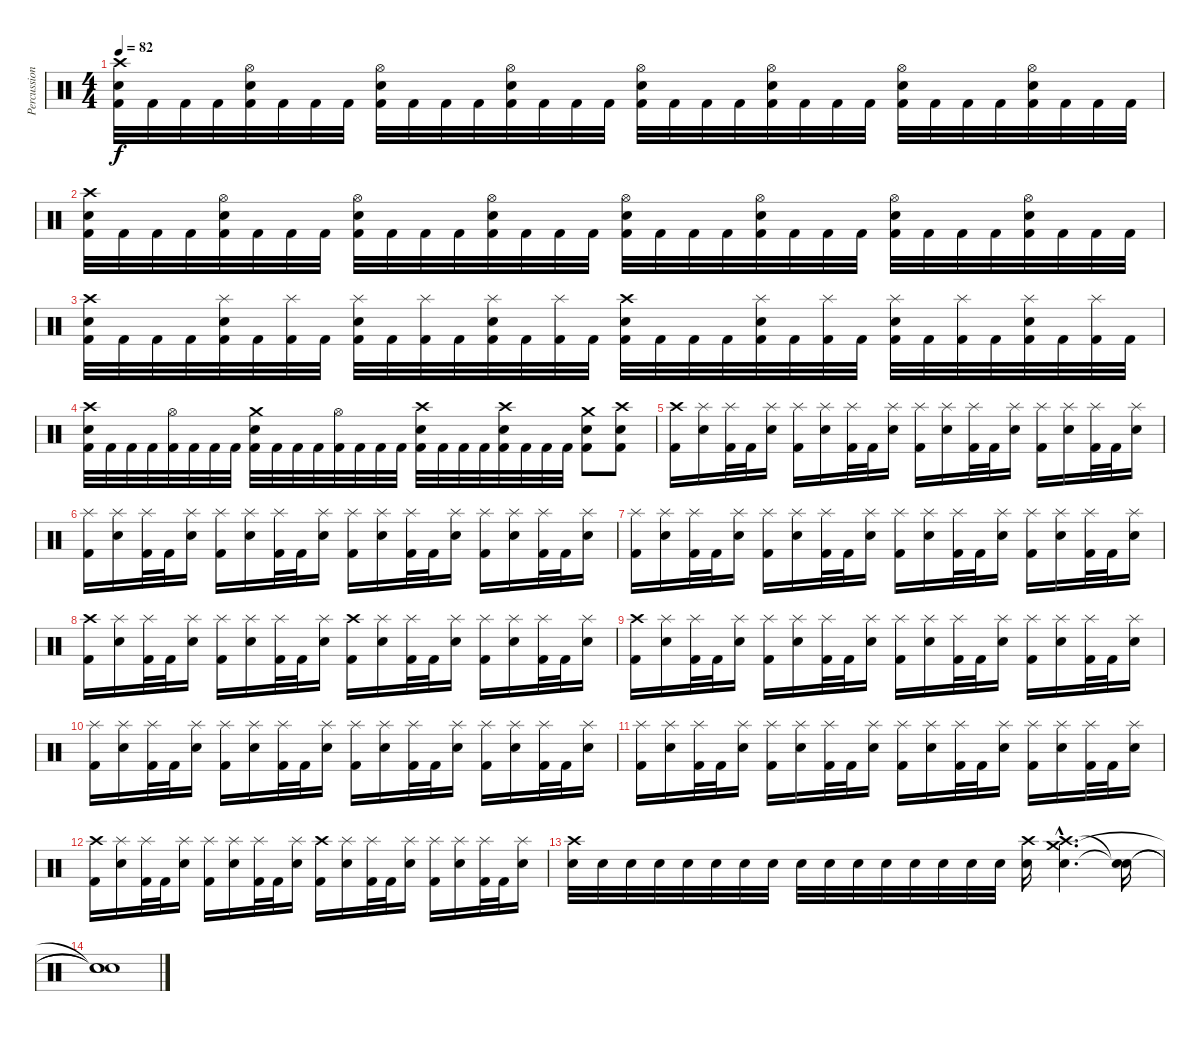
\track ("Percussion" "Percussion") {instrument percussion}
\staff {score}
\articulation defaults
\ts (4 4)
\tempo 82
\clef neutral
\ks c
("Crash high (hit)" "Electric Snare (hit)" "Kick (hit) 2").32{dy f} "Kick (hit) 2".32 "Kick (hit) 2".32 "Kick (hit) 2".32 ("Hi-Hat (open)" "Electric Snare (hit)" "Kick (hit) 2").32 "Kick (hit) 2".32 "Kick (hit) 2".32 "Kick (hit) 2".32 ("Hi-Hat (open)" "Electric Snare (hit)" "Kick (hit) 2").32 "Kick (hit) 2".32 "Kick (hit) 2".32 "Kick (hit) 2".32 ("Hi-Hat (open)" "Electric Snare (hit)" "Kick (hit) 2").32 "Kick (hit) 2".32 "Kick (hit) 2".32 "Kick (hit) 2".32 ("Hi-Hat (open)" "Electric Snare (hit)" "Kick (hit) 2").32 "Kick (hit) 2".32 "Kick (hit) 2".32 "Kick (hit) 2".32 ("Hi-Hat (open)" "Electric Snare (hit)" "Kick (hit) 2").32 "Kick (hit) 2".32 "Kick (hit) 2".32 "Kick (hit) 2".32 ("Hi-Hat (open)" "Electric Snare (hit)" "Kick (hit) 2").32 "Kick (hit) 2".32 "Kick (hit) 2".32 "Kick (hit) 2".32 ("Hi-Hat (open)" "Electric Snare (hit)" "Kick (hit) 2").32 "Kick (hit) 2".32 "Kick (hit) 2".32 "Kick (hit) 2".32 |
("Crash high (hit)" "Electric Snare (hit)" "Kick (hit) 2").32 "Kick (hit) 2".32 "Kick (hit) 2".32 "Kick (hit) 2".32 ("Hi-Hat (open)" "Electric Snare (hit)" "Kick (hit) 2").32 "Kick (hit) 2".32 "Kick (hit) 2".32 "Kick (hit) 2".32 ("Hi-Hat (open)" "Electric Snare (hit)" "Kick (hit) 2").32 "Kick (hit) 2".32 "Kick (hit) 2".32 "Kick (hit) 2".32 ("Hi-Hat (open)" "Electric Snare (hit)" "Kick (hit) 2").32 "Kick (hit) 2".32 "Kick (hit) 2".32 "Kick (hit) 2".32 ("Hi-Hat (open)" "Electric Snare (hit)" "Kick (hit) 2").32 "Kick (hit) 2".32 "Kick (hit) 2".32 "Kick (hit) 2".32 ("Hi-Hat (open)" "Electric Snare (hit)" "Kick (hit) 2").32 "Kick (hit) 2".32 "Kick (hit) 2".32 "Kick (hit) 2".32 ("Hi-Hat (open)" "Electric Snare (hit)" "Kick (hit) 2").32 "Kick (hit) 2".32 "Kick (hit) 2".32 "Kick (hit) 2".32 ("Hi-Hat (open)" "Electric Snare (hit)" "Kick (hit) 2").32 "Kick (hit) 2".32 "Kick (hit) 2".32 "Kick (hit) 2".32 |
("Crash high (hit)" "Electric Snare (hit)" "Kick (hit) 2").32 "Kick (hit) 2".32 "Kick (hit) 2".32 "Kick (hit) 2".32 ("Splash (hit)" "Electric Snare (hit)" "Kick (hit) 2").32 "Kick (hit) 2".32 ("Splash (hit)" "Kick (hit) 2").32 "Kick (hit) 2".32 ("Splash (hit)" "Electric Snare (hit)" "Kick (hit) 2").32 "Kick (hit) 2".32 ("Splash (hit)" "Kick (hit) 2").32 "Kick (hit) 2".32 ("Splash (hit)" "Electric Snare (hit)" "Kick (hit) 2").32 "Kick (hit) 2".32 ("Splash (hit)" "Kick (hit) 2").32 "Kick (hit) 2".32 ("Crash high (hit)" "Electric Snare (hit)" "Kick (hit) 2").32 "Kick (hit) 2".32 "Kick (hit) 2".32 "Kick (hit) 2".32 ("Splash (hit)" "Electric Snare (hit)" "Kick (hit) 2").32 "Kick (hit) 2".32 ("Splash (hit)" "Kick (hit) 2").32 "Kick (hit) 2".32 ("Splash (hit)" "Electric Snare (hit)" "Kick (hit) 2").32 "Kick (hit) 2".32 ("Splash (hit)" "Kick (hit) 2").32 "Kick (hit) 2".32 ("Splash (hit)" "Electric Snare (hit)" "Kick (hit) 2").32 "Kick (hit) 2".32 ("Splash (hit)" "Kick (hit) 2").32 "Kick (hit) 2".32 |
("Crash high (hit)" "Electric Snare (hit)" "Kick (hit) 2").32 "Kick (hit) 2".32 "Kick (hit) 2".32 "Kick (hit) 2".32 ("Hi-Hat (open)" "Kick (hit) 2").32 "Kick (hit) 2".32 "Kick (hit) 2".32 "Kick (hit) 2".32 ("Crash medium (hit)" "Electric Snare (hit)" "Kick (hit) 2").32 "Kick (hit) 2".32 "Kick (hit) 2".32 "Kick (hit) 2".32 ("Hi-Hat (open)" "Kick (hit) 2").32 "Kick (hit) 2".32 "Kick (hit) 2".32 "Kick (hit) 2".32 ("Crash high (hit)" "Electric Snare (hit)" "Kick (hit) 2").32 "Kick (hit) 2".32 "Kick (hit) 2".32 "Kick (hit) 2".32 ("Crash high (hit)" "Electric Snare (hit)" "Kick (hit) 2").32 "Kick (hit) 2".32 "Kick (hit) 2".32 "Kick (hit) 2".32 ("Crash medium (hit)" "Electric Snare (hit)" "Kick (hit) 2").8 ("Crash high (hit)" "Electric Snare (hit)" "Kick (hit) 2").8 |
\section ("" "")
("Crash high (hit)" "Kick (hit) 2").16 ("Splash (hit)" "Electric Snare (hit)").16 ("Splash (hit)" "Kick (hit) 2").32 "Kick (hit) 2".32 ("Splash (hit)" "Electric Snare (hit)").16 ("Splash (hit)" "Kick (hit) 2").16 ("Splash (hit)" "Electric Snare (hit)").16 ("Splash (hit)" "Kick (hit) 2").32 "Kick (hit) 2".32 ("Splash (hit)" "Electric Snare (hit)").16 ("Splash (hit)" "Kick (hit) 2").16 ("Splash (hit)" "Electric Snare (hit)").16 ("Splash (hit)" "Kick (hit) 2").32 "Kick (hit) 2".32 ("Splash (hit)" "Electric Snare (hit)").16 ("Splash (hit)" "Kick (hit) 2").16 ("Splash (hit)" "Electric Snare (hit)").16 ("Splash (hit)" "Kick (hit) 2").32 "Kick (hit) 2".32 ("Splash (hit)" "Electric Snare (hit)").16 |
("Splash (hit)" "Kick (hit) 2").16 ("Splash (hit)" "Electric Snare (hit)").16 ("Splash (hit)" "Kick (hit) 2").32 "Kick (hit) 2".32 ("Splash (hit)" "Electric Snare (hit)").16 ("Splash (hit)" "Kick (hit) 2").16 ("Splash (hit)" "Electric Snare (hit)").16 ("Splash (hit)" "Kick (hit) 2").32 "Kick (hit) 2".32 ("Splash (hit)" "Electric Snare (hit)").16 ("Splash (hit)" "Kick (hit) 2").16 ("Splash (hit)" "Electric Snare (hit)").16 ("Splash (hit)" "Kick (hit) 2").32 "Kick (hit) 2".32 ("Splash (hit)" "Electric Snare (hit)").16 ("Splash (hit)" "Kick (hit) 2").16 ("Splash (hit)" "Electric Snare (hit)").16 ("Splash (hit)" "Kick (hit) 2").32 "Kick (hit) 2".32 ("Splash (hit)" "Electric Snare (hit)").16 |
("Splash (hit)" "Kick (hit) 2").16 ("Splash (hit)" "Electric Snare (hit)").16 ("Splash (hit)" "Kick (hit) 2").32 "Kick (hit) 2".32 ("Splash (hit)" "Electric Snare (hit)").16 ("Splash (hit)" "Kick (hit) 2").16 ("Splash (hit)" "Electric Snare (hit)").16 ("Splash (hit)" "Kick (hit) 2").32 "Kick (hit) 2".32 ("Splash (hit)" "Electric Snare (hit)").16 ("Splash (hit)" "Kick (hit) 2").16 ("Splash (hit)" "Electric Snare (hit)").16 ("Splash (hit)" "Kick (hit) 2").32 "Kick (hit) 2".32 ("Splash (hit)" "Electric Snare (hit)").16 ("Splash (hit)" "Kick (hit) 2").16 ("Splash (hit)" "Electric Snare (hit)").16 ("Splash (hit)" "Kick (hit) 2").32 "Kick (hit) 2".32 ("Splash (hit)" "Electric Snare (hit)").16 |
("Crash high (hit)" "Kick (hit) 2").16 ("Splash (hit)" "Electric Snare (hit)").16 ("Splash (hit)" "Kick (hit) 2").32 "Kick (hit) 2".32 ("Splash (hit)" "Electric Snare (hit)").16 ("Splash (hit)" "Kick (hit) 2").16 ("Splash (hit)" "Electric Snare (hit)").16 ("Splash (hit)" "Kick (hit) 2").32 "Kick (hit) 2".32 ("Splash (hit)" "Electric Snare (hit)").16 ("Crash high (hit)" "Kick (hit) 2").16 ("Splash (hit)" "Electric Snare (hit)").16 ("Splash (hit)" "Kick (hit) 2").32 "Kick (hit) 2".32 ("Splash (hit)" "Electric Snare (hit)").16 ("Splash (hit)" "Kick (hit) 2").16 ("Splash (hit)" "Electric Snare (hit)").16 ("Splash (hit)" "Kick (hit) 2").32 "Kick (hit) 2".32 ("Splash (hit)" "Electric Snare (hit)").16 |
("Crash high (hit)" "Kick (hit) 2").16 ("Splash (hit)" "Electric Snare (hit)").16 ("Splash (hit)" "Kick (hit) 2").32 "Kick (hit) 2".32 ("Splash (hit)" "Electric Snare (hit)").16 ("Splash (hit)" "Kick (hit) 2").16 ("Splash (hit)" "Electric Snare (hit)").16 ("Splash (hit)" "Kick (hit) 2").32 "Kick (hit) 2".32 ("Splash (hit)" "Electric Snare (hit)").16 ("Splash (hit)" "Kick (hit) 2").16 ("Splash (hit)" "Electric Snare (hit)").16 ("Splash (hit)" "Kick (hit) 2").32 "Kick (hit) 2".32 ("Splash (hit)" "Electric Snare (hit)").16 ("Splash (hit)" "Kick (hit) 2").16 ("Splash (hit)" "Electric Snare (hit)").16 ("Splash (hit)" "Kick (hit) 2").32 "Kick (hit) 2".32 ("Splash (hit)" "Electric Snare (hit)").16 |
("Splash (hit)" "Kick (hit) 2").16 ("Splash (hit)" "Electric Snare (hit)").16 ("Splash (hit)" "Kick (hit) 2").32 "Kick (hit) 2".32 ("Splash (hit)" "Electric Snare (hit)").16 ("Splash (hit)" "Kick (hit) 2").16 ("Splash (hit)" "Electric Snare (hit)").16 ("Splash (hit)" "Kick (hit) 2").32 "Kick (hit) 2".32 ("Splash (hit)" "Electric Snare (hit)").16 ("Splash (hit)" "Kick (hit) 2").16 ("Splash (hit)" "Electric Snare (hit)").16 ("Splash (hit)" "Kick (hit) 2").32 "Kick (hit) 2".32 ("Splash (hit)" "Electric Snare (hit)").16 ("Splash (hit)" "Kick (hit) 2").16 ("Splash (hit)" "Electric Snare (hit)").16 ("Splash (hit)" "Kick (hit) 2").32 "Kick (hit) 2".32 ("Splash (hit)" "Electric Snare (hit)").16 |
("Splash (hit)" "Kick (hit) 2").16 ("Splash (hit)" "Electric Snare (hit)").16 ("Splash (hit)" "Kick (hit) 2").32 "Kick (hit) 2".32 ("Splash (hit)" "Electric Snare (hit)").16 ("Splash (hit)" "Kick (hit) 2").16 ("Splash (hit)" "Electric Snare (hit)").16 ("Splash (hit)" "Kick (hit) 2").32 "Kick (hit) 2".32 ("Splash (hit)" "Electric Snare (hit)").16 ("Splash (hit)" "Kick (hit) 2").16 ("Splash (hit)" "Electric Snare (hit)").16 ("Splash (hit)" "Kick (hit) 2").32 "Kick (hit) 2".32 ("Splash (hit)" "Electric Snare (hit)").16 ("Splash (hit)" "Kick (hit) 2").16 ("Splash (hit)" "Electric Snare (hit)").16 ("Splash (hit)" "Kick (hit) 2").32 "Kick (hit) 2".32 ("Splash (hit)" "Electric Snare (hit)").16 |
("Crash high (hit)" "Kick (hit) 2").16 ("Splash (hit)" "Electric Snare (hit)").16 ("Splash (hit)" "Kick (hit) 2").32 "Kick (hit) 2".32 ("Splash (hit)" "Electric Snare (hit)").16 ("Splash (hit)" "Kick (hit) 2").16 ("Splash (hit)" "Electric Snare (hit)").16 ("Splash (hit)" "Kick (hit) 2").32 "Kick (hit) 2".32 ("Splash (hit)" "Electric Snare (hit)").16 ("Crash high (hit)" "Kick (hit) 2").16 ("Splash (hit)" "Electric Snare (hit)").16 ("Splash (hit)" "Kick (hit) 2").32 "Kick (hit) 2".32 ("Splash (hit)" "Electric Snare (hit)").16 ("Splash (hit)" "Kick (hit) 2").16 ("Splash (hit)" "Electric Snare (hit)").16 ("Splash (hit)" "Kick (hit) 2").32 "Kick (hit) 2".32 ("Splash (hit)" "Electric Snare (hit)").16 |
("Crash high (hit)" "Electric Snare (hit)").32 "Electric Snare (hit)".32 "Electric Snare (hit)".32 "Electric Snare (hit)".32 "Electric Snare (hit)".32 "Electric Snare (hit)".32 "Electric Snare (hit)".32 "Electric Snare (hit)".32 "Electric Snare (hit)".32 "Electric Snare (hit)".32 "Electric Snare (hit)".32 "Electric Snare (hit)".32 "Electric Snare (hit)".32 "Electric Snare (hit)".32 "Electric Snare (hit)".32 "Electric Snare (hit)".32 ("Crash high (hit)" "Electric Snare (hit)").16 ("Crash high (hit)"{hac} "Electric Snare (hit)"{hac} "Crash medium (hit)"{hac}).4{d} ("Snare (hit)"{t} "Snare (hit)"{t}).16 |
("Snare (hit)"{t} "Snare (hit)"{t} "Snare (hit)"{t}).1
